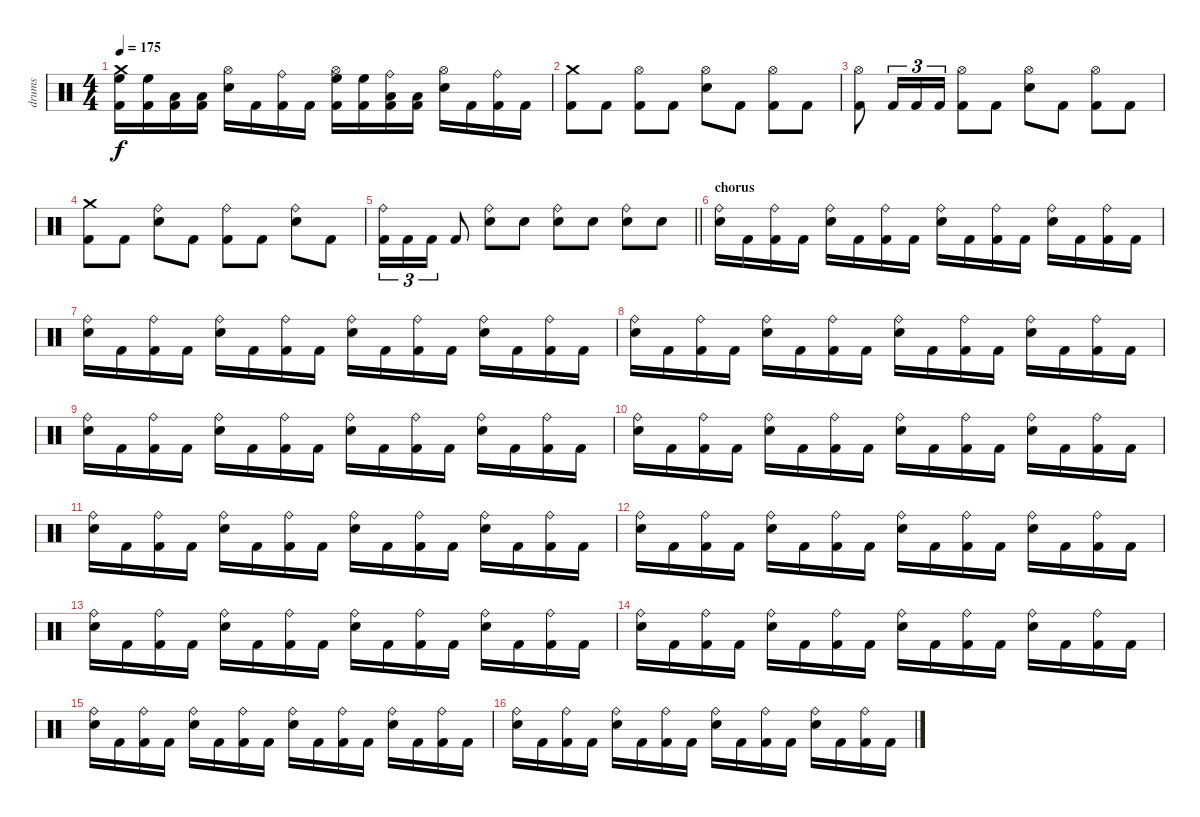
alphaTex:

\track ("drums" "drums") {instrument percussion}
\staff {score}
\articulation defaults
\ts (4 4)
\tempo 175
\clef neutral
\ks c
("Crash medium (hit)" "High Floor Tom (hit)" "Kick (hit) 2").16{dy f} ("High Floor Tom (hit)" "Kick (hit) 2").16 ("Low Tom (hit)" "Kick (hit) 2").16 ("Low Tom (hit)" "Kick (hit) 2").16 ("Hi-Hat (open)" "Snare (hit) 2").16 "Kick (hit) 2".16 ("Ride (bell)" "Kick (hit) 2").16 "Kick (hit) 2".16 ("Hi-Hat (open)" "High Floor Tom (hit)" "Kick (hit) 2").16 ("High Floor Tom (hit)" "Kick (hit) 2").16 ("Ride (bell)" "Low Tom (hit)" "Kick (hit) 2").16 ("Low Tom (hit)" "Kick (hit) 2").16 ("Hi-Hat (open)" "Snare (hit) 2").16 "Kick (hit) 2".16 ("Ride (bell)" "Kick (hit) 2").16 "Kick (hit) 2".16 |
("Crash medium (hit)" "Kick (hit) 2").8 "Kick (hit) 2".8 ("Hi-Hat (open)" "Kick (hit) 2").8 "Kick (hit) 2".8 ("Hi-Hat (open)" "Snare (hit) 2").8 "Kick (hit) 2".8 ("Hi-Hat (open)" "Kick (hit) 2").8 "Kick (hit) 2".8 |
("Hi-Hat (open)" "Kick (hit) 2").8 "Kick (hit) 2".16{tu (3 2)} "Kick (hit) 2".16{tu (3 2)} "Kick (hit) 2".16{tu (3 2)} ("Hi-Hat (open)" "Kick (hit) 2").8 "Kick (hit) 2".8 ("Hi-Hat (open)" "Snare (hit) 2").8 "Kick (hit) 2".8 ("Hi-Hat (open)" "Kick (hit) 2").8 "Kick (hit) 2".8 |
("Crash medium (hit)" "Kick (hit) 2").8 "Kick (hit) 2".8 ("Ride (bell)" "Snare (hit) 2").8 "Kick (hit) 2".8 ("Ride (bell)" "Kick (hit) 2").8 "Kick (hit) 2".8 ("Ride (bell)" "Snare (hit) 2").8 "Kick (hit) 2".8 |
\barLineRight lightlight
("Ride (bell)" "Kick (hit) 2").16{tu (3 2)} "Kick (hit) 2".16{tu (3 2)} "Kick (hit) 2".16{tu (3 2)} "Kick (hit) 2".8 ("Ride (bell)" "Snare (hit) 2").8 "Snare (hit) 2".8 ("Ride (bell)" "Snare (hit) 2").8 "Snare (hit) 2".8 ("Ride (bell)" "Snare (hit) 2").8 "Snare (hit) 2".8 |
\section ("" "chorus")
("Ride (bell)" "Snare (hit) 2").16 "Kick (hit) 2".16 ("Ride (bell)" "Kick (hit) 2").16 "Kick (hit) 2".16 ("Ride (bell)" "Snare (hit) 2").16 "Kick (hit) 2".16 ("Ride (bell)" "Kick (hit) 2").16 "Kick (hit) 2".16 ("Ride (bell)" "Snare (hit) 2").16 "Kick (hit) 2".16 ("Ride (bell)" "Kick (hit) 2").16 "Kick (hit) 2".16 ("Ride (bell)" "Snare (hit) 2").16 "Kick (hit) 2".16 ("Ride (bell)" "Kick (hit) 2").16 "Kick (hit) 2".16 |
("Ride (bell)" "Snare (hit) 2").16 "Kick (hit) 2".16 ("Ride (bell)" "Kick (hit) 2").16 "Kick (hit) 2".16 ("Ride (bell)" "Snare (hit) 2").16 "Kick (hit) 2".16 ("Ride (bell)" "Kick (hit) 2").16 "Kick (hit) 2".16 ("Ride (bell)" "Snare (hit) 2").16 "Kick (hit) 2".16 ("Ride (bell)" "Kick (hit) 2").16 "Kick (hit) 2".16 ("Ride (bell)" "Snare (hit) 2").16 "Kick (hit) 2".16 ("Ride (bell)" "Kick (hit) 2").16 "Kick (hit) 2".16 |
("Ride (bell)" "Snare (hit) 2").16 "Kick (hit) 2".16 ("Ride (bell)" "Kick (hit) 2").16 "Kick (hit) 2".16 ("Ride (bell)" "Snare (hit) 2").16 "Kick (hit) 2".16 ("Ride (bell)" "Kick (hit) 2").16 "Kick (hit) 2".16 ("Ride (bell)" "Snare (hit) 2").16 "Kick (hit) 2".16 ("Ride (bell)" "Kick (hit) 2").16 "Kick (hit) 2".16 ("Ride (bell)" "Snare (hit) 2").16 "Kick (hit) 2".16 ("Ride (bell)" "Kick (hit) 2").16 "Kick (hit) 2".16 |
("Ride (bell)" "Snare (hit) 2").16 "Kick (hit) 2".16 ("Ride (bell)" "Kick (hit) 2").16 "Kick (hit) 2".16 ("Ride (bell)" "Snare (hit) 2").16 "Kick (hit) 2".16 ("Ride (bell)" "Kick (hit) 2").16 "Kick (hit) 2".16 ("Ride (bell)" "Snare (hit) 2").16 "Kick (hit) 2".16 ("Ride (bell)" "Kick (hit) 2").16 "Kick (hit) 2".16 ("Ride (bell)" "Snare (hit) 2").16 "Kick (hit) 2".16 ("Ride (bell)" "Kick (hit) 2").16 "Kick (hit) 2".16 |
("Ride (bell)" "Snare (hit) 2").16 "Kick (hit) 2".16 ("Ride (bell)" "Kick (hit) 2").16 "Kick (hit) 2".16 ("Ride (bell)" "Snare (hit) 2").16 "Kick (hit) 2".16 ("Ride (bell)" "Kick (hit) 2").16 "Kick (hit) 2".16 ("Ride (bell)" "Snare (hit) 2").16 "Kick (hit) 2".16 ("Ride (bell)" "Kick (hit) 2").16 "Kick (hit) 2".16 ("Ride (bell)" "Snare (hit) 2").16 "Kick (hit) 2".16 ("Ride (bell)" "Kick (hit) 2").16 "Kick (hit) 2".16 |
("Ride (bell)" "Snare (hit) 2").16 "Kick (hit) 2".16 ("Ride (bell)" "Kick (hit) 2").16 "Kick (hit) 2".16 ("Ride (bell)" "Snare (hit) 2").16 "Kick (hit) 2".16 ("Ride (bell)" "Kick (hit) 2").16 "Kick (hit) 2".16 ("Ride (bell)" "Snare (hit) 2").16 "Kick (hit) 2".16 ("Ride (bell)" "Kick (hit) 2").16 "Kick (hit) 2".16 ("Ride (bell)" "Snare (hit) 2").16 "Kick (hit) 2".16 ("Ride (bell)" "Kick (hit) 2").16 "Kick (hit) 2".16 |
("Ride (bell)" "Snare (hit) 2").16 "Kick (hit) 2".16 ("Ride (bell)" "Kick (hit) 2").16 "Kick (hit) 2".16 ("Ride (bell)" "Snare (hit) 2").16 "Kick (hit) 2".16 ("Ride (bell)" "Kick (hit) 2").16 "Kick (hit) 2".16 ("Ride (bell)" "Snare (hit) 2").16 "Kick (hit) 2".16 ("Ride (bell)" "Kick (hit) 2").16 "Kick (hit) 2".16 ("Ride (bell)" "Snare (hit) 2").16 "Kick (hit) 2".16 ("Ride (bell)" "Kick (hit) 2").16 "Kick (hit) 2".16 |
("Ride (bell)" "Snare (hit) 2").16 "Kick (hit) 2".16 ("Ride (bell)" "Kick (hit) 2").16 "Kick (hit) 2".16 ("Ride (bell)" "Snare (hit) 2").16 "Kick (hit) 2".16 ("Ride (bell)" "Kick (hit) 2").16 "Kick (hit) 2".16 ("Ride (bell)" "Snare (hit) 2").16 "Kick (hit) 2".16 ("Ride (bell)" "Kick (hit) 2").16 "Kick (hit) 2".16 ("Ride (bell)" "Snare (hit) 2").16 "Kick (hit) 2".16 ("Ride (bell)" "Kick (hit) 2").16 "Kick (hit) 2".16 |
("Ride (bell)" "Snare (hit) 2").16 "Kick (hit) 2".16 ("Ride (bell)" "Kick (hit) 2").16 "Kick (hit) 2".16 ("Ride (bell)" "Snare (hit) 2").16 "Kick (hit) 2".16 ("Ride (bell)" "Kick (hit) 2").16 "Kick (hit) 2".16 ("Ride (bell)" "Snare (hit) 2").16 "Kick (hit) 2".16 ("Ride (bell)" "Kick (hit) 2").16 "Kick (hit) 2".16 ("Ride (bell)" "Snare (hit) 2").16 "Kick (hit) 2".16 ("Ride (bell)" "Kick (hit) 2").16 "Kick (hit) 2".16 |
("Ride (bell)" "Snare (hit) 2").16 "Kick (hit) 2".16 ("Ride (bell)" "Kick (hit) 2").16 "Kick (hit) 2".16 ("Ride (bell)" "Snare (hit) 2").16 "Kick (hit) 2".16 ("Ride (bell)" "Kick (hit) 2").16 "Kick (hit) 2".16 ("Ride (bell)" "Snare (hit) 2").16 "Kick (hit) 2".16 ("Ride (bell)" "Kick (hit) 2").16 "Kick (hit) 2".16 ("Ride (bell)" "Snare (hit) 2").16 "Kick (hit) 2".16 ("Ride (bell)" "Kick (hit) 2").16 "Kick (hit) 2".16 |
("Ride (bell)" "Snare (hit) 2").16 "Kick (hit) 2".16 ("Ride (bell)" "Kick (hit) 2").16 "Kick (hit) 2".16 ("Ride (bell)" "Snare (hit) 2").16 "Kick (hit) 2".16 ("Ride (bell)" "Kick (hit) 2").16 "Kick (hit) 2".16 ("Ride (bell)" "Snare (hit) 2").16 "Kick (hit) 2".16 ("Ride (bell)" "Kick (hit) 2").16 "Kick (hit) 2".16 ("Ride (bell)" "Snare (hit) 2").16 "Kick (hit) 2".16 ("Ride (bell)" "Kick (hit) 2").16 "Kick (hit) 2".16
